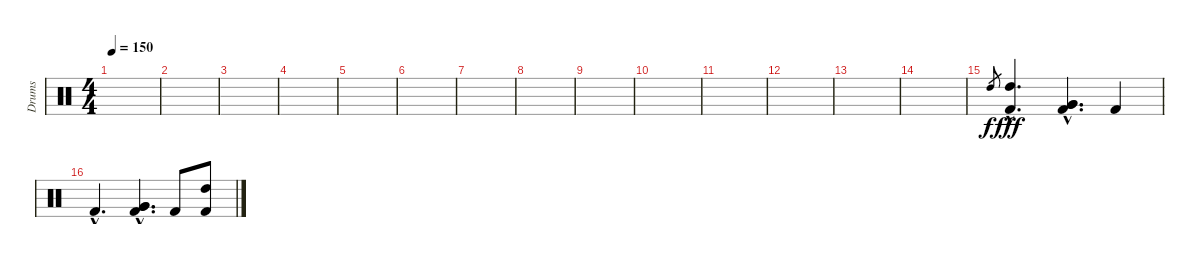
\track ("Drums" "Drums") {instrument percussion}
\staff {score}
\articulation defaults
\ts (4 4)
\tempo 150
\clef neutral
\ks c
|
|
|
|
|
|
|
|
|
|
|
|
|
|
"High Tom (hit)".8{gr dy f} ("High Tom (hit)"{hac} "Kick (hit) 2"{hac}).4{d bd 240 dy fff} ("Very Low Tom (hit)"{hac} "Very Low Tom (hit)"{hac} "Kick (hit) 2"{hac}).4{d} "Kick (hit) 2".4 |
"Kick (hit) 2"{hac}.4{d} ("Very Low Tom (hit)"{hac} "Very Low Tom (hit)"{hac} "Kick (hit) 2"{hac}).4{d} "Kick (hit) 2".8 ("High Tom (hit)" "Kick (hit) 2").8
